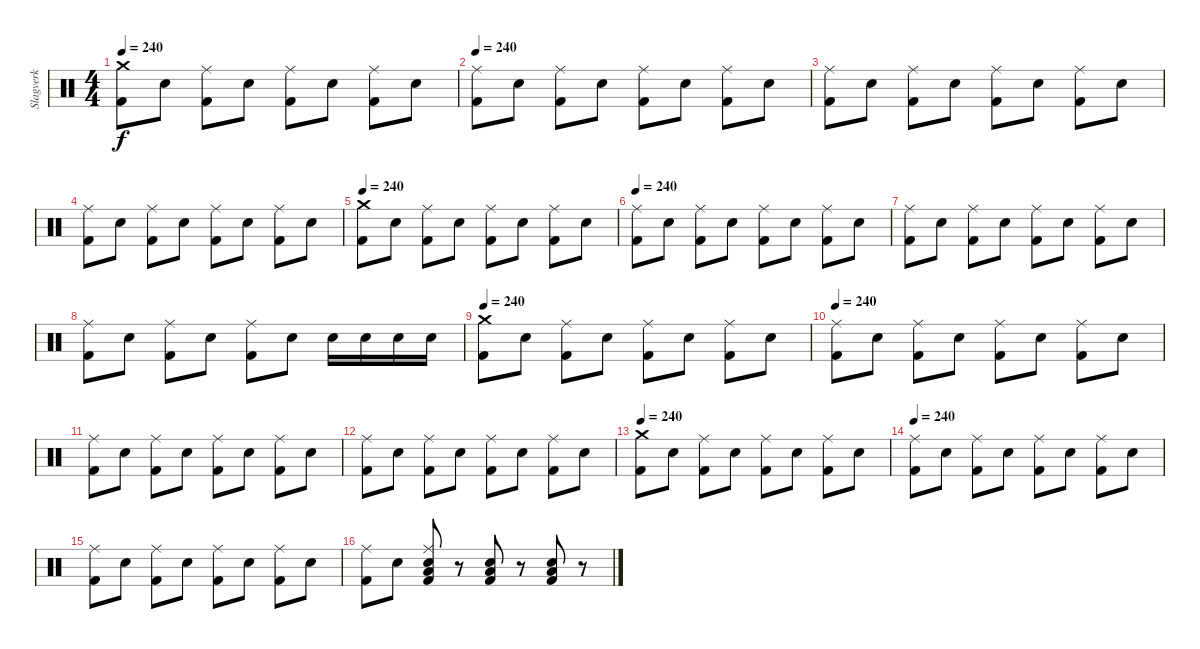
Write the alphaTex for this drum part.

\track ("Slagverk" "Slagverk") {instrument percussion}
\staff {score}
\articulation defaults
\ts (4 4)
\tempo 240
\clef neutral
\ks c
("Crash medium (hit)" "Kick (hit) 2").8{dy f} "Electric Snare (hit)".8 ("Ride (middle)" "Kick (hit) 2").8 "Electric Snare (hit)".8 ("Ride (middle)" "Kick (hit) 2").8 "Electric Snare (hit)".8 ("Ride (middle)" "Kick (hit) 2").8 "Electric Snare (hit)".8 |
\tempo 240
("Ride (middle)" "Kick (hit) 2").8 "Electric Snare (hit)".8 ("Ride (middle)" "Kick (hit) 2").8 "Electric Snare (hit)".8 ("Ride (middle)" "Kick (hit) 2").8 "Electric Snare (hit)".8 ("Ride (middle)" "Kick (hit) 2").8 "Electric Snare (hit)".8 |
("Ride (middle)" "Kick (hit) 2").8 "Electric Snare (hit)".8 ("Ride (middle)" "Kick (hit) 2").8 "Electric Snare (hit)".8 ("Ride (middle)" "Kick (hit) 2").8 "Electric Snare (hit)".8 ("Ride (middle)" "Kick (hit) 2").8 "Electric Snare (hit)".8 |
("Ride (middle)" "Kick (hit) 2").8 "Electric Snare (hit)".8 ("Ride (middle)" "Kick (hit) 2").8 "Electric Snare (hit)".8 ("Ride (middle)" "Kick (hit) 2").8 "Electric Snare (hit)".8 ("Ride (middle)" "Kick (hit) 2").8 "Electric Snare (hit)".8 |
\tempo 240
("Crash medium (hit)" "Kick (hit) 2").8 "Electric Snare (hit)".8 ("Ride (middle)" "Kick (hit) 2").8 "Electric Snare (hit)".8 ("Ride (middle)" "Kick (hit) 2").8 "Electric Snare (hit)".8 ("Ride (middle)" "Kick (hit) 2").8 "Electric Snare (hit)".8 |
\tempo 240
("Ride (middle)" "Kick (hit) 2").8 "Electric Snare (hit)".8 ("Ride (middle)" "Kick (hit) 2").8 "Electric Snare (hit)".8 ("Ride (middle)" "Kick (hit) 2").8 "Electric Snare (hit)".8 ("Ride (middle)" "Kick (hit) 2").8 "Electric Snare (hit)".8 |
("Ride (middle)" "Kick (hit) 2").8 "Electric Snare (hit)".8 ("Ride (middle)" "Kick (hit) 2").8 "Electric Snare (hit)".8 ("Ride (middle)" "Kick (hit) 2").8 "Electric Snare (hit)".8 ("Ride (middle)" "Kick (hit) 2").8 "Electric Snare (hit)".8 |
("Ride (middle)" "Kick (hit) 2").8 "Electric Snare (hit)".8 ("Ride (middle)" "Kick (hit) 2").8 "Electric Snare (hit)".8 ("Ride (middle)" "Kick (hit) 2").8 "Electric Snare (hit)".8 "Electric Snare (hit)".16 "Electric Snare (hit)".16 "Electric Snare (hit)".16 "Electric Snare (hit)".16 |
\tempo 240
("Crash medium (hit)" "Kick (hit) 2").8 "Electric Snare (hit)".8 ("Ride (middle)" "Kick (hit) 2").8 "Electric Snare (hit)".8 ("Ride (middle)" "Kick (hit) 2").8 "Electric Snare (hit)".8 ("Ride (middle)" "Kick (hit) 2").8 "Electric Snare (hit)".8 |
\tempo 240
("Ride (middle)" "Kick (hit) 2").8 "Electric Snare (hit)".8 ("Ride (middle)" "Kick (hit) 2").8 "Electric Snare (hit)".8 ("Ride (middle)" "Kick (hit) 2").8 "Electric Snare (hit)".8 ("Ride (middle)" "Kick (hit) 2").8 "Electric Snare (hit)".8 |
("Ride (middle)" "Kick (hit) 2").8 "Electric Snare (hit)".8 ("Ride (middle)" "Kick (hit) 2").8 "Electric Snare (hit)".8 ("Ride (middle)" "Kick (hit) 2").8 "Electric Snare (hit)".8 ("Ride (middle)" "Kick (hit) 2").8 "Electric Snare (hit)".8 |
("Ride (middle)" "Kick (hit) 2").8 "Electric Snare (hit)".8 ("Ride (middle)" "Kick (hit) 2").8 "Electric Snare (hit)".8 ("Ride (middle)" "Kick (hit) 2").8 "Electric Snare (hit)".8 ("Ride (middle)" "Kick (hit) 2").8 "Electric Snare (hit)".8 |
\tempo 240
("Crash medium (hit)" "Kick (hit) 2").8 "Electric Snare (hit)".8 ("Ride (middle)" "Kick (hit) 2").8 "Electric Snare (hit)".8 ("Ride (middle)" "Kick (hit) 2").8 "Electric Snare (hit)".8 ("Ride (middle)" "Kick (hit) 2").8 "Electric Snare (hit)".8 |
\tempo 240
("Ride (middle)" "Kick (hit) 2").8 "Electric Snare (hit)".8 ("Ride (middle)" "Kick (hit) 2").8 "Electric Snare (hit)".8 ("Ride (middle)" "Kick (hit) 2").8 "Electric Snare (hit)".8 ("Ride (middle)" "Kick (hit) 2").8 "Electric Snare (hit)".8 |
("Ride (middle)" "Kick (hit) 2").8 "Electric Snare (hit)".8 ("Ride (middle)" "Kick (hit) 2").8 "Electric Snare (hit)".8 ("Ride (middle)" "Kick (hit) 2").8 "Electric Snare (hit)".8 ("Ride (middle)" "Kick (hit) 2").8 "Electric Snare (hit)".8 |
("Ride (middle)" "Kick (hit) 2").8 "Electric Snare (hit)".8 ("Ride (middle)" "Low Tom (hit)" "Electric Snare (hit)" "Kick (hit) 2").8 r.8 ("Low Tom (hit)" "Electric Snare (hit)" "Kick (hit) 2").8 r.8 ("Low Tom (hit)" "Electric Snare (hit)" "Kick (hit) 2").8 r.8
